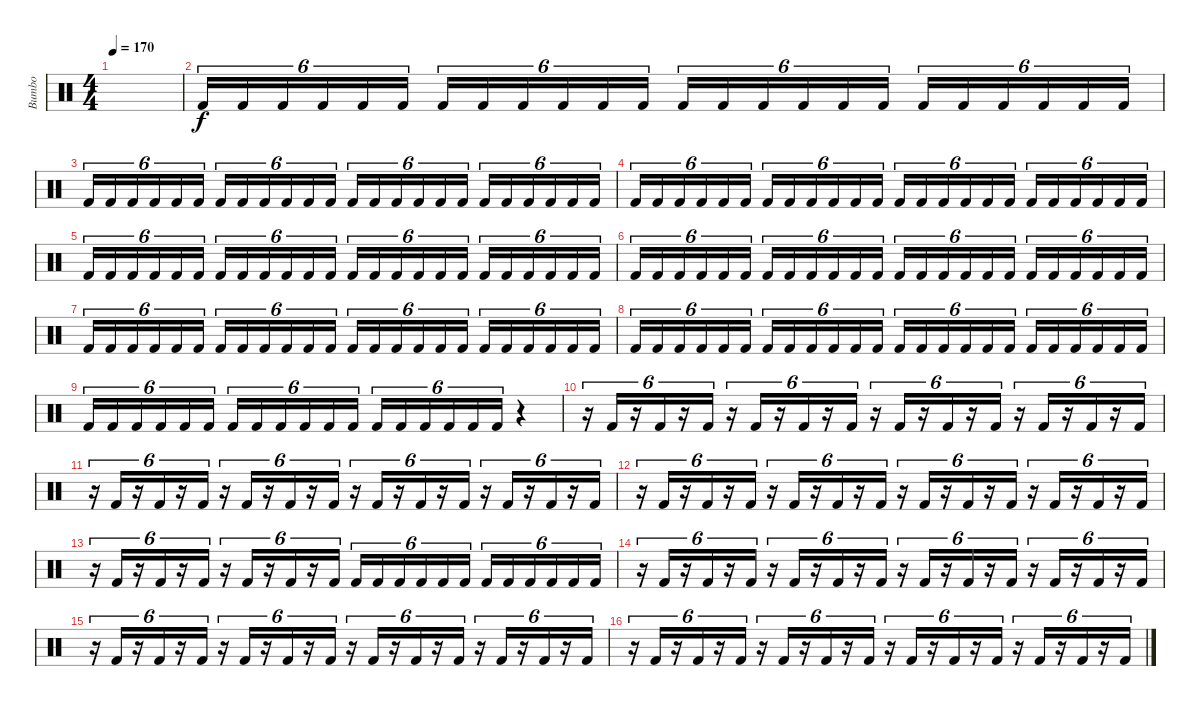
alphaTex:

\track ("Bumbo" "Bumbo") {instrument percussion}
\staff {score}
\articulation defaults
\ts (4 4)
\tempo 170
\clef neutral
\ks c
|
"Kick (hit) 2".16{tu (6 4)} "Kick (hit) 2".16{tu (6 4)} "Kick (hit) 2".16{tu (6 4)} "Kick (hit) 2".16{tu (6 4)} "Kick (hit) 2".16{tu (6 4)} "Kick (hit) 2".16{tu (6 4)} "Kick (hit) 2".16{tu (6 4)} "Kick (hit) 2".16{tu (6 4)} "Kick (hit) 2".16{tu (6 4)} "Kick (hit) 2".16{tu (6 4)} "Kick (hit) 2".16{tu (6 4)} "Kick (hit) 2".16{tu (6 4)} "Kick (hit) 2".16{tu (6 4)} "Kick (hit) 2".16{tu (6 4)} "Kick (hit) 2".16{tu (6 4)} "Kick (hit) 2".16{tu (6 4)} "Kick (hit) 2".16{tu (6 4)} "Kick (hit) 2".16{tu (6 4)} "Kick (hit) 2".16{tu (6 4)} "Kick (hit) 2".16{tu (6 4)} "Kick (hit) 2".16{tu (6 4)} "Kick (hit) 2".16{tu (6 4)} "Kick (hit) 2".16{tu (6 4)} "Kick (hit) 2".16{tu (6 4)} |
"Kick (hit) 2".16{tu (6 4)} "Kick (hit) 2".16{tu (6 4)} "Kick (hit) 2".16{tu (6 4)} "Kick (hit) 2".16{tu (6 4)} "Kick (hit) 2".16{tu (6 4)} "Kick (hit) 2".16{tu (6 4)} "Kick (hit) 2".16{tu (6 4)} "Kick (hit) 2".16{tu (6 4)} "Kick (hit) 2".16{tu (6 4)} "Kick (hit) 2".16{tu (6 4)} "Kick (hit) 2".16{tu (6 4)} "Kick (hit) 2".16{tu (6 4)} "Kick (hit) 2".16{tu (6 4)} "Kick (hit) 2".16{tu (6 4)} "Kick (hit) 2".16{tu (6 4)} "Kick (hit) 2".16{tu (6 4)} "Kick (hit) 2".16{tu (6 4)} "Kick (hit) 2".16{tu (6 4)} "Kick (hit) 2".16{tu (6 4)} "Kick (hit) 2".16{tu (6 4)} "Kick (hit) 2".16{tu (6 4)} "Kick (hit) 2".16{tu (6 4)} "Kick (hit) 2".16{tu (6 4)} "Kick (hit) 2".16{tu (6 4)} |
"Kick (hit) 2".16{tu (6 4)} "Kick (hit) 2".16{tu (6 4)} "Kick (hit) 2".16{tu (6 4)} "Kick (hit) 2".16{tu (6 4)} "Kick (hit) 2".16{tu (6 4)} "Kick (hit) 2".16{tu (6 4)} "Kick (hit) 2".16{tu (6 4)} "Kick (hit) 2".16{tu (6 4)} "Kick (hit) 2".16{tu (6 4)} "Kick (hit) 2".16{tu (6 4)} "Kick (hit) 2".16{tu (6 4)} "Kick (hit) 2".16{tu (6 4)} "Kick (hit) 2".16{tu (6 4)} "Kick (hit) 2".16{tu (6 4)} "Kick (hit) 2".16{tu (6 4)} "Kick (hit) 2".16{tu (6 4)} "Kick (hit) 2".16{tu (6 4)} "Kick (hit) 2".16{tu (6 4)} "Kick (hit) 2".16{tu (6 4)} "Kick (hit) 2".16{tu (6 4)} "Kick (hit) 2".16{tu (6 4)} "Kick (hit) 2".16{tu (6 4)} "Kick (hit) 2".16{tu (6 4)} "Kick (hit) 2".16{tu (6 4)} |
"Kick (hit) 2".16{tu (6 4)} "Kick (hit) 2".16{tu (6 4)} "Kick (hit) 2".16{tu (6 4)} "Kick (hit) 2".16{tu (6 4)} "Kick (hit) 2".16{tu (6 4)} "Kick (hit) 2".16{tu (6 4)} "Kick (hit) 2".16{tu (6 4)} "Kick (hit) 2".16{tu (6 4)} "Kick (hit) 2".16{tu (6 4)} "Kick (hit) 2".16{tu (6 4)} "Kick (hit) 2".16{tu (6 4)} "Kick (hit) 2".16{tu (6 4)} "Kick (hit) 2".16{tu (6 4)} "Kick (hit) 2".16{tu (6 4)} "Kick (hit) 2".16{tu (6 4)} "Kick (hit) 2".16{tu (6 4)} "Kick (hit) 2".16{tu (6 4)} "Kick (hit) 2".16{tu (6 4)} "Kick (hit) 2".16{tu (6 4)} "Kick (hit) 2".16{tu (6 4)} "Kick (hit) 2".16{tu (6 4)} "Kick (hit) 2".16{tu (6 4)} "Kick (hit) 2".16{tu (6 4)} "Kick (hit) 2".16{tu (6 4)} |
"Kick (hit) 2".16{tu (6 4)} "Kick (hit) 2".16{tu (6 4)} "Kick (hit) 2".16{tu (6 4)} "Kick (hit) 2".16{tu (6 4)} "Kick (hit) 2".16{tu (6 4)} "Kick (hit) 2".16{tu (6 4)} "Kick (hit) 2".16{tu (6 4)} "Kick (hit) 2".16{tu (6 4)} "Kick (hit) 2".16{tu (6 4)} "Kick (hit) 2".16{tu (6 4)} "Kick (hit) 2".16{tu (6 4)} "Kick (hit) 2".16{tu (6 4)} "Kick (hit) 2".16{tu (6 4)} "Kick (hit) 2".16{tu (6 4)} "Kick (hit) 2".16{tu (6 4)} "Kick (hit) 2".16{tu (6 4)} "Kick (hit) 2".16{tu (6 4)} "Kick (hit) 2".16{tu (6 4)} "Kick (hit) 2".16{tu (6 4)} "Kick (hit) 2".16{tu (6 4)} "Kick (hit) 2".16{tu (6 4)} "Kick (hit) 2".16{tu (6 4)} "Kick (hit) 2".16{tu (6 4)} "Kick (hit) 2".16{tu (6 4)} |
"Kick (hit) 2".16{tu (6 4)} "Kick (hit) 2".16{tu (6 4)} "Kick (hit) 2".16{tu (6 4)} "Kick (hit) 2".16{tu (6 4)} "Kick (hit) 2".16{tu (6 4)} "Kick (hit) 2".16{tu (6 4)} "Kick (hit) 2".16{tu (6 4)} "Kick (hit) 2".16{tu (6 4)} "Kick (hit) 2".16{tu (6 4)} "Kick (hit) 2".16{tu (6 4)} "Kick (hit) 2".16{tu (6 4)} "Kick (hit) 2".16{tu (6 4)} "Kick (hit) 2".16{tu (6 4)} "Kick (hit) 2".16{tu (6 4)} "Kick (hit) 2".16{tu (6 4)} "Kick (hit) 2".16{tu (6 4)} "Kick (hit) 2".16{tu (6 4)} "Kick (hit) 2".16{tu (6 4)} "Kick (hit) 2".16{tu (6 4)} "Kick (hit) 2".16{tu (6 4)} "Kick (hit) 2".16{tu (6 4)} "Kick (hit) 2".16{tu (6 4)} "Kick (hit) 2".16{tu (6 4)} "Kick (hit) 2".16{tu (6 4)} |
"Kick (hit) 2".16{tu (6 4)} "Kick (hit) 2".16{tu (6 4)} "Kick (hit) 2".16{tu (6 4)} "Kick (hit) 2".16{tu (6 4)} "Kick (hit) 2".16{tu (6 4)} "Kick (hit) 2".16{tu (6 4)} "Kick (hit) 2".16{tu (6 4)} "Kick (hit) 2".16{tu (6 4)} "Kick (hit) 2".16{tu (6 4)} "Kick (hit) 2".16{tu (6 4)} "Kick (hit) 2".16{tu (6 4)} "Kick (hit) 2".16{tu (6 4)} "Kick (hit) 2".16{tu (6 4)} "Kick (hit) 2".16{tu (6 4)} "Kick (hit) 2".16{tu (6 4)} "Kick (hit) 2".16{tu (6 4)} "Kick (hit) 2".16{tu (6 4)} "Kick (hit) 2".16{tu (6 4)} "Kick (hit) 2".16{tu (6 4)} "Kick (hit) 2".16{tu (6 4)} "Kick (hit) 2".16{tu (6 4)} "Kick (hit) 2".16{tu (6 4)} "Kick (hit) 2".16{tu (6 4)} "Kick (hit) 2".16{tu (6 4)} |
"Kick (hit) 2".16{tu (6 4)} "Kick (hit) 2".16{tu (6 4)} "Kick (hit) 2".16{tu (6 4)} "Kick (hit) 2".16{tu (6 4)} "Kick (hit) 2".16{tu (6 4)} "Kick (hit) 2".16{tu (6 4)} "Kick (hit) 2".16{tu (6 4)} "Kick (hit) 2".16{tu (6 4)} "Kick (hit) 2".16{tu (6 4)} "Kick (hit) 2".16{tu (6 4)} "Kick (hit) 2".16{tu (6 4)} "Kick (hit) 2".16{tu (6 4)} "Kick (hit) 2".16{tu (6 4)} "Kick (hit) 2".16{tu (6 4)} "Kick (hit) 2".16{tu (6 4)} "Kick (hit) 2".16{tu (6 4)} "Kick (hit) 2".16{tu (6 4)} "Kick (hit) 2".16{tu (6 4)} r.4 |
r.16{tu (6 4)} "Kick (hit) 2".16{tu (6 4)} r.16{tu (6 4)} "Kick (hit) 2".16{tu (6 4)} r.16{tu (6 4)} "Kick (hit) 2".16{tu (6 4)} r.16{tu (6 4)} "Kick (hit) 2".16{tu (6 4)} r.16{tu (6 4)} "Kick (hit) 2".16{tu (6 4)} r.16{tu (6 4)} "Kick (hit) 2".16{tu (6 4)} r.16{tu (6 4)} "Kick (hit) 2".16{tu (6 4)} r.16{tu (6 4)} "Kick (hit) 2".16{tu (6 4)} r.16{tu (6 4)} "Kick (hit) 2".16{tu (6 4)} r.16{tu (6 4)} "Kick (hit) 2".16{tu (6 4)} r.16{tu (6 4)} "Kick (hit) 2".16{tu (6 4)} r.16{tu (6 4)} "Kick (hit) 2".16{tu (6 4)} |
r.16{tu (6 4)} "Kick (hit) 2".16{tu (6 4)} r.16{tu (6 4)} "Kick (hit) 2".16{tu (6 4)} r.16{tu (6 4)} "Kick (hit) 2".16{tu (6 4)} r.16{tu (6 4)} "Kick (hit) 2".16{tu (6 4)} r.16{tu (6 4)} "Kick (hit) 2".16{tu (6 4)} r.16{tu (6 4)} "Kick (hit) 2".16{tu (6 4)} r.16{tu (6 4)} "Kick (hit) 2".16{tu (6 4)} r.16{tu (6 4)} "Kick (hit) 2".16{tu (6 4)} r.16{tu (6 4)} "Kick (hit) 2".16{tu (6 4)} r.16{tu (6 4)} "Kick (hit) 2".16{tu (6 4)} r.16{tu (6 4)} "Kick (hit) 2".16{tu (6 4)} r.16{tu (6 4)} "Kick (hit) 2".16{tu (6 4)} |
r.16{tu (6 4)} "Kick (hit) 2".16{tu (6 4)} r.16{tu (6 4)} "Kick (hit) 2".16{tu (6 4)} r.16{tu (6 4)} "Kick (hit) 2".16{tu (6 4)} r.16{tu (6 4)} "Kick (hit) 2".16{tu (6 4)} r.16{tu (6 4)} "Kick (hit) 2".16{tu (6 4)} r.16{tu (6 4)} "Kick (hit) 2".16{tu (6 4)} r.16{tu (6 4)} "Kick (hit) 2".16{tu (6 4)} r.16{tu (6 4)} "Kick (hit) 2".16{tu (6 4)} r.16{tu (6 4)} "Kick (hit) 2".16{tu (6 4)} r.16{tu (6 4)} "Kick (hit) 2".16{tu (6 4)} r.16{tu (6 4)} "Kick (hit) 2".16{tu (6 4)} r.16{tu (6 4)} "Kick (hit) 2".16{tu (6 4)} |
r.16{tu (6 4)} "Kick (hit) 2".16{tu (6 4)} r.16{tu (6 4)} "Kick (hit) 2".16{tu (6 4)} r.16{tu (6 4)} "Kick (hit) 2".16{tu (6 4)} r.16{tu (6 4)} "Kick (hit) 2".16{tu (6 4)} r.16{tu (6 4)} "Kick (hit) 2".16{tu (6 4)} r.16{tu (6 4)} "Kick (hit) 2".16{tu (6 4)} "Kick (hit) 2".16{tu (6 4)} "Kick (hit) 2".16{tu (6 4)} "Kick (hit) 2".16{tu (6 4)} "Kick (hit) 2".16{tu (6 4)} "Kick (hit) 2".16{tu (6 4)} "Kick (hit) 2".16{tu (6 4)} "Kick (hit) 2".16{tu (6 4)} "Kick (hit) 2".16{tu (6 4)} "Kick (hit) 2".16{tu (6 4)} "Kick (hit) 2".16{tu (6 4)} "Kick (hit) 2".16{tu (6 4)} "Kick (hit) 2".16{tu (6 4)} |
r.16{tu (6 4)} "Kick (hit) 2".16{tu (6 4)} r.16{tu (6 4)} "Kick (hit) 2".16{tu (6 4)} r.16{tu (6 4)} "Kick (hit) 2".16{tu (6 4)} r.16{tu (6 4)} "Kick (hit) 2".16{tu (6 4)} r.16{tu (6 4)} "Kick (hit) 2".16{tu (6 4)} r.16{tu (6 4)} "Kick (hit) 2".16{tu (6 4)} r.16{tu (6 4)} "Kick (hit) 2".16{tu (6 4)} r.16{tu (6 4)} "Kick (hit) 2".16{tu (6 4)} r.16{tu (6 4)} "Kick (hit) 2".16{tu (6 4)} r.16{tu (6 4)} "Kick (hit) 2".16{tu (6 4)} r.16{tu (6 4)} "Kick (hit) 2".16{tu (6 4)} r.16{tu (6 4)} "Kick (hit) 2".16{tu (6 4)} |
r.16{tu (6 4)} "Kick (hit) 2".16{tu (6 4)} r.16{tu (6 4)} "Kick (hit) 2".16{tu (6 4)} r.16{tu (6 4)} "Kick (hit) 2".16{tu (6 4)} r.16{tu (6 4)} "Kick (hit) 2".16{tu (6 4)} r.16{tu (6 4)} "Kick (hit) 2".16{tu (6 4)} r.16{tu (6 4)} "Kick (hit) 2".16{tu (6 4)} r.16{tu (6 4)} "Kick (hit) 2".16{tu (6 4)} r.16{tu (6 4)} "Kick (hit) 2".16{tu (6 4)} r.16{tu (6 4)} "Kick (hit) 2".16{tu (6 4)} r.16{tu (6 4)} "Kick (hit) 2".16{tu (6 4)} r.16{tu (6 4)} "Kick (hit) 2".16{tu (6 4)} r.16{tu (6 4)} "Kick (hit) 2".16{tu (6 4)} |
r.16{tu (6 4)} "Kick (hit) 2".16{tu (6 4)} r.16{tu (6 4)} "Kick (hit) 2".16{tu (6 4)} r.16{tu (6 4)} "Kick (hit) 2".16{tu (6 4)} r.16{tu (6 4)} "Kick (hit) 2".16{tu (6 4)} r.16{tu (6 4)} "Kick (hit) 2".16{tu (6 4)} r.16{tu (6 4)} "Kick (hit) 2".16{tu (6 4)} r.16{tu (6 4)} "Kick (hit) 2".16{tu (6 4)} r.16{tu (6 4)} "Kick (hit) 2".16{tu (6 4)} r.16{tu (6 4)} "Kick (hit) 2".16{tu (6 4)} r.16{tu (6 4)} "Kick (hit) 2".16{tu (6 4)} r.16{tu (6 4)} "Kick (hit) 2".16{tu (6 4)} r.16{tu (6 4)} "Kick (hit) 2".16{tu (6 4)}
